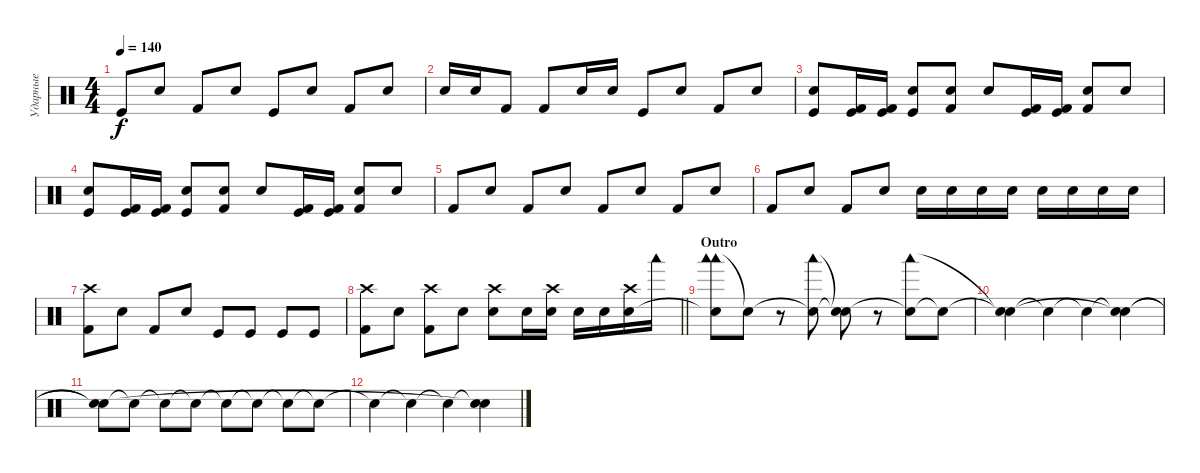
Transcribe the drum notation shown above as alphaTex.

\track ("Ударные" "Ударные") {instrument percussion}
\staff {score}
\articulation defaults
\ts (4 4)
\tempo 140
\clef neutral
\ks c "Kick (hit)".8{dy f} "Snare (hit) 2".8 "Kick (hit) 2".8 "Snare (hit) 2".8 "Kick (hit)".8 "Snare (hit) 2".8 "Kick (hit) 2".8 "Snare (hit) 2".8
|
"Snare (hit) 2".16 "Snare (hit) 2".16 "Kick (hit) 2".8 "Kick (hit) 2".8 "Snare (hit) 2".16 "Snare (hit) 2".16 "Kick (hit)".8 "Snare (hit) 2".8 "Kick (hit) 2".8 "Snare (hit) 2".8 |
("Snare (hit) 2" "Kick (hit)").8 ("Kick (hit) 2" "Kick (hit)").16 ("Kick (hit) 2" "Kick (hit)").16 ("Snare (hit) 2" "Kick (hit)").8 ("Kick (hit) 2" "Electric Snare (hit)").8 "Snare (hit) 2".8 ("Kick (hit) 2" "Kick (hit)").16 ("Kick (hit) 2" "Kick (hit)").16 ("Snare (hit) 2" "Kick (hit) 2").8 "Electric Snare (hit)".8 |
("Snare (hit) 2" "Kick (hit)").8 ("Kick (hit) 2" "Kick (hit)").16 ("Kick (hit) 2" "Kick (hit)").16 ("Snare (hit) 2" "Kick (hit)").8 ("Kick (hit) 2" "Electric Snare (hit)").8 "Snare (hit) 2".8 ("Kick (hit) 2" "Kick (hit)").16 ("Kick (hit) 2" "Kick (hit)").16 ("Snare (hit) 2" "Kick (hit) 2").8 "Electric Snare (hit)".8 |
"Kick (hit) 2".8 "Snare (hit) 2".8 "Kick (hit) 2".8 "Snare (hit) 2".8 "Kick (hit) 2".8 "Snare (hit) 2".8 "Kick (hit) 2".8 "Snare (hit) 2".8 |
"Kick (hit) 2".8 "Snare (hit) 2".8 "Kick (hit) 2".8 "Snare (hit) 2".8 "Snare (hit) 2".16 "Snare (hit) 2".16 "Snare (hit) 2".16 "Snare (hit) 2".16 "Snare (hit) 2".16 "Snare (hit) 2".16 "Snare (hit) 2".16 "Snare (hit) 2".16 |
("Crash high (hit)" "Kick (hit) 2").8 "Snare (hit) 2".8 "Kick (hit) 2".8 "Snare (hit) 2".8 "Kick (hit)".8 "Kick (hit)".8 "Kick (hit)".8 "Kick (hit)".8 |
\barLineRight lightlight
("Crash high (hit)" "Kick (hit) 2").8 "Snare (hit) 2".8 ("Crash high (hit)" "Kick (hit) 2").8 "Snare (hit) 2".8 ("Crash high (hit)" "Snare (hit) 2").8 "Snare (hit) 2".16 ("Crash high (hit)" "Snare (hit) 2").16 "Snare (hit) 2".16 "Snare (hit) 2".16 ("Crash high (hit)" "Snare (hit) 2").16 "Woodblock low (hit)".16{volume 16} |
\section ("" "Outro")
("Woodblock low (hit)" "Snare (hit)"{t} "Woodblock low (hit)").8 "Snare (hit)"{t}.8 r.8 ("Snare (hit)"{t} "Woodblock low (hit)").8 ("Snare (hit)"{t} "Snare (hit)"{t}).8 r.8 ("Snare (hit)"{t} "Woodblock low (hit)").8 "Snare (hit)"{t}.8 |
("Snare (hit)"{t} "Snare (hit)"{t}).4 "Snare (hit)"{t}.4 "Snare (hit)"{t}.4 ("Snare (hit)"{t} "Snare (hit)"{t}).4 |
("Snare (hit)"{t} "Snare (hit)"{t}).8 "Snare (hit)"{t}.8 "Snare (hit)"{t}.8 "Snare (hit)"{t}.8 "Snare (hit)"{t}.8 "Snare (hit)"{t}.8 "Snare (hit)"{t}.8 "Snare (hit)"{t}.8 |
"Snare (hit)"{t}.4 "Snare (hit)"{t}.4 "Snare (hit)"{t}.4 ("Snare (hit)"{t} "Snare (hit)"{t}).4
